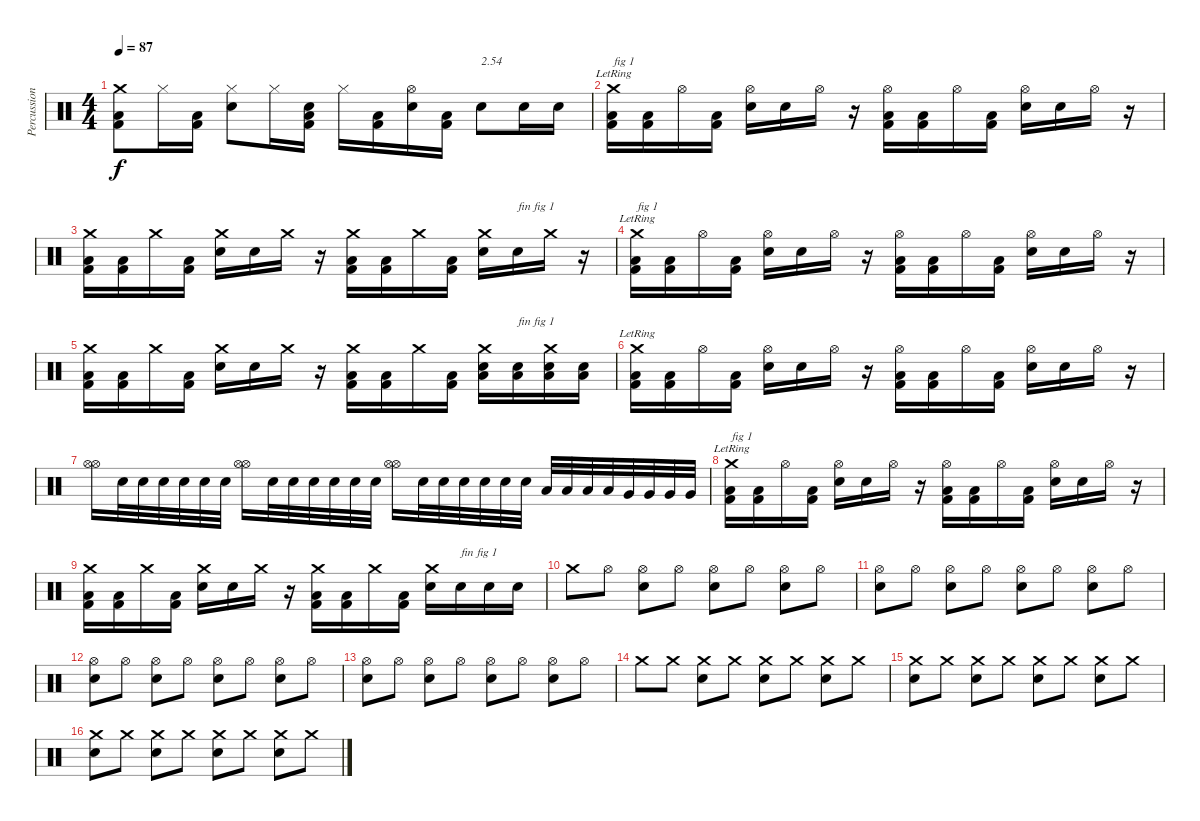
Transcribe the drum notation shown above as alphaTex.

\track ("Percussions" "Percussion") {instrument percussion}
\staff {score}
\articulation defaults
\ts (4 4)
\tempo 87
\clef neutral
\ks c
("Kick (hit) 2" "Low Floor Tom (hit)" "Crash medium (hit)").8{dy f} "Hi-Hat (closed)".16 ("Kick (hit) 2" "Low Floor Tom (hit)").16 ("Electric Snare (hit)" "Hi-Hat (closed)").8 "Hi-Hat (closed)".16 ("Kick (hit) 2" "Low Floor Tom (hit)" "Electric Snare (hit)").16 "Hi-Hat (closed)".16 ("Kick (hit) 2" "Low Floor Tom (hit)").16 ("Electric Snare (hit)" "Hi-Hat (open)").16 ("Kick (hit) 2" "Low Floor Tom (hit)").16 "Electric Snare (hit)".8{txt "2.54"} "Electric Snare (hit)".16 "Electric Snare (hit)".16 |
("Kick (hit) 2" "Low Floor Tom (hit)" "Crash medium (hit)"{lr}).16{txt "fig 1"} ("Kick (hit) 2" "Low Floor Tom (hit)").16 "Hi-Hat (open)".16 ("Kick (hit) 2" "Low Floor Tom (hit)").16 ("Electric Snare (hit)" "Hi-Hat (open)").16 "Electric Snare (hit)".16 "Hi-Hat (open)".16 r.16 ("Kick (hit) 2" "Low Floor Tom (hit)" "Hi-Hat (open)").16 ("Kick (hit) 2" "Low Floor Tom (hit)").16 "Hi-Hat (open)".16 ("Kick (hit) 2" "Low Floor Tom (hit)").16 ("Electric Snare (hit)" "Hi-Hat (open)").16 "Electric Snare (hit)".16 "Hi-Hat (open)".16 r.16 |
("Kick (hit) 2" "Low Floor Tom (hit)" "Crash medium (hit)").16 ("Kick (hit) 2" "Low Floor Tom (hit)").16 "Crash medium (hit)".16 ("Kick (hit) 2" "Low Floor Tom (hit)").16 ("Electric Snare (hit)" "Crash medium (hit)").16 "Electric Snare (hit)".16 "Crash medium (hit)".16 r.16 ("Kick (hit) 2" "Low Floor Tom (hit)" "Crash medium (hit)").16 ("Kick (hit) 2" "Low Floor Tom (hit)").16 "Crash medium (hit)".16 ("Kick (hit) 2" "Low Floor Tom (hit)").16 ("Electric Snare (hit)" "Crash medium (hit)").16 "Electric Snare (hit)".16{txt "fin fig 1"} "Crash medium (hit)".16 r.16 |
("Kick (hit) 2" "Low Floor Tom (hit)" "Crash medium (hit)"{lr}).16{txt "fig 1"} ("Kick (hit) 2" "Low Floor Tom (hit)").16 "Hi-Hat (open)".16 ("Kick (hit) 2" "Low Floor Tom (hit)").16 ("Electric Snare (hit)" "Hi-Hat (open)").16 "Electric Snare (hit)".16 "Hi-Hat (open)".16 r.16 ("Kick (hit) 2" "Low Floor Tom (hit)" "Hi-Hat (open)").16 ("Kick (hit) 2" "Low Floor Tom (hit)").16 "Hi-Hat (open)".16 ("Kick (hit) 2" "Low Floor Tom (hit)").16 ("Electric Snare (hit)" "Hi-Hat (open)").16 "Electric Snare (hit)".16 "Hi-Hat (open)".16 r.16 |
("Kick (hit) 2" "Low Floor Tom (hit)" "Crash medium (hit)").16 ("Kick (hit) 2" "Low Floor Tom (hit)").16 "Crash medium (hit)".16 ("Kick (hit) 2" "Low Floor Tom (hit)").16 ("Electric Snare (hit)" "Crash medium (hit)").16 "Electric Snare (hit)".16 "Crash medium (hit)".16 r.16 ("Kick (hit) 2" "Low Floor Tom (hit)" "Crash medium (hit)").16 ("Kick (hit) 2" "Low Floor Tom (hit)").16 "Crash medium (hit)".16 ("Kick (hit) 2" "Low Floor Tom (hit)").16 ("Electric Snare (hit)" "Low Tom (hit)" "Crash medium (hit)").16 ("Electric Snare (hit)" "Low Tom (hit)").16{txt "fin fig 1"} ("Electric Snare (hit)" "Low Tom (hit)" "Crash medium (hit)").16 ("Electric Snare (hit)" "Low Tom (hit)").16 |
("Kick (hit) 2" "Low Floor Tom (hit)" "Crash medium (hit)"{lr}).16 ("Kick (hit) 2" "Low Floor Tom (hit)").16 "Hi-Hat (open)".16 ("Kick (hit) 2" "Low Floor Tom (hit)").16 ("Electric Snare (hit)" "Hi-Hat (open)").16 "Electric Snare (hit)".16 "Hi-Hat (open)".16 r.16 ("Kick (hit) 2" "Low Floor Tom (hit)" "Hi-Hat (open)").16 ("Kick (hit) 2" "Low Floor Tom (hit)").16 "Hi-Hat (open)".16 ("Kick (hit) 2" "Low Floor Tom (hit)").16 ("Electric Snare (hit)" "Hi-Hat (open)").16 "Electric Snare (hit)".16 "Hi-Hat (open)".16 r.16 |
("Hi-Hat (open)" "Hi-Hat (open)").16 "Electric Snare (hit)".32 "Electric Snare (hit)".32 "Electric Snare (hit)".32 "Electric Snare (hit)".32 "Electric Snare (hit)".32 "Electric Snare (hit)".32 ("Hi-Hat (open)" "Hi-Hat (open)").16 "Electric Snare (hit)".32 "Electric Snare (hit)".32 "Electric Snare (hit)".32 "Electric Snare (hit)".32 "Electric Snare (hit)".32 "Electric Snare (hit)".32 ("Hi-Hat (open)" "Hi-Hat (open)").16 "Electric Snare (hit)".32 "Electric Snare (hit)".32 "Electric Snare (hit)".32 "Electric Snare (hit)".32 "Electric Snare (hit)".32 "Electric Snare (hit)".32 "Low Tom (hit)".32 "Low Tom (hit)".32 "Low Tom (hit)".32 "Low Tom (hit)".32 "Very Low Tom (hit)".32 "Very Low Tom (hit)".32 "Very Low Tom (hit)".32 "Very Low Tom (hit)".32 |
("Kick (hit) 2" "Low Floor Tom (hit)" "Crash medium (hit)"{lr}).16{txt "fig 1"} ("Kick (hit) 2" "Low Floor Tom (hit)").16 "Hi-Hat (open)".16 ("Kick (hit) 2" "Low Floor Tom (hit)").16 ("Electric Snare (hit)" "Hi-Hat (open)").16 "Electric Snare (hit)".16 "Hi-Hat (open)".16 r.16 ("Kick (hit) 2" "Low Floor Tom (hit)" "Hi-Hat (open)").16 ("Kick (hit) 2" "Low Floor Tom (hit)").16 "Hi-Hat (open)".16 ("Kick (hit) 2" "Low Floor Tom (hit)").16 ("Electric Snare (hit)" "Hi-Hat (open)").16 "Electric Snare (hit)".16 "Hi-Hat (open)".16 r.16 |
("Kick (hit) 2" "Low Floor Tom (hit)" "Crash medium (hit)").16 ("Kick (hit) 2" "Low Floor Tom (hit)").16 "Crash medium (hit)".16 ("Kick (hit) 2" "Low Floor Tom (hit)").16 ("Electric Snare (hit)" "Crash medium (hit)").16 "Electric Snare (hit)".16 "Crash medium (hit)".16 r.16 ("Kick (hit) 2" "Low Floor Tom (hit)" "Crash medium (hit)").16 ("Kick (hit) 2" "Low Floor Tom (hit)").16 "Crash medium (hit)".16 ("Kick (hit) 2" "Low Floor Tom (hit)").16 ("Electric Snare (hit)" "Crash medium (hit)").16 "Electric Snare (hit)".16{txt "fin fig 1"} "Electric Snare (hit)".16 "Electric Snare (hit)".16 |
"Crash medium (hit)".8 "Hi-Hat (open)".8 ("Electric Snare (hit)" "Hi-Hat (open)").8 "Hi-Hat (open)".8 ("Electric Snare (hit)" "Hi-Hat (open)").8 "Hi-Hat (open)".8 ("Electric Snare (hit)" "Hi-Hat (open)").8 "Hi-Hat (open)".8 |
("Electric Snare (hit)" "Hi-Hat (open)").8 "Hi-Hat (open)".8 ("Electric Snare (hit)" "Hi-Hat (open)").8 "Hi-Hat (open)".8 ("Electric Snare (hit)" "Hi-Hat (open)").8 "Hi-Hat (open)".8 ("Electric Snare (hit)" "Hi-Hat (open)").8 "Hi-Hat (open)".8 |
("Electric Snare (hit)" "Hi-Hat (open)").8 "Hi-Hat (open)".8 ("Electric Snare (hit)" "Hi-Hat (open)").8 "Hi-Hat (open)".8 ("Electric Snare (hit)" "Hi-Hat (open)").8 "Hi-Hat (open)".8 ("Electric Snare (hit)" "Hi-Hat (open)").8 "Hi-Hat (open)".8 |
("Electric Snare (hit)" "Hi-Hat (open)").8 "Hi-Hat (open)".8 ("Electric Snare (hit)" "Hi-Hat (open)").8 "Hi-Hat (open)".8 ("Electric Snare (hit)" "Hi-Hat (open)").8 "Hi-Hat (open)".8 ("Electric Snare (hit)" "Hi-Hat (open)").8 "Hi-Hat (open)".8 |
"Crash medium (hit)".8 "Crash medium (hit)".8 ("Electric Snare (hit)" "Crash medium (hit)").8 "Crash medium (hit)".8 ("Electric Snare (hit)" "Crash medium (hit)").8 "Crash medium (hit)".8 ("Electric Snare (hit)" "Crash medium (hit)").8 "Crash medium (hit)".8 |
("Electric Snare (hit)" "Crash medium (hit)").8 "Crash medium (hit)".8 ("Electric Snare (hit)" "Crash medium (hit)").8 "Crash medium (hit)".8 ("Electric Snare (hit)" "Crash medium (hit)").8 "Crash medium (hit)".8 ("Electric Snare (hit)" "Crash medium (hit)").8 "Crash medium (hit)".8 |
("Electric Snare (hit)" "Crash medium (hit)").8 "Crash medium (hit)".8 ("Electric Snare (hit)" "Crash medium (hit)").8 "Crash medium (hit)".8 ("Electric Snare (hit)" "Crash medium (hit)").8 "Crash medium (hit)".8 ("Electric Snare (hit)" "Crash medium (hit)").8 "Crash medium (hit)".8
